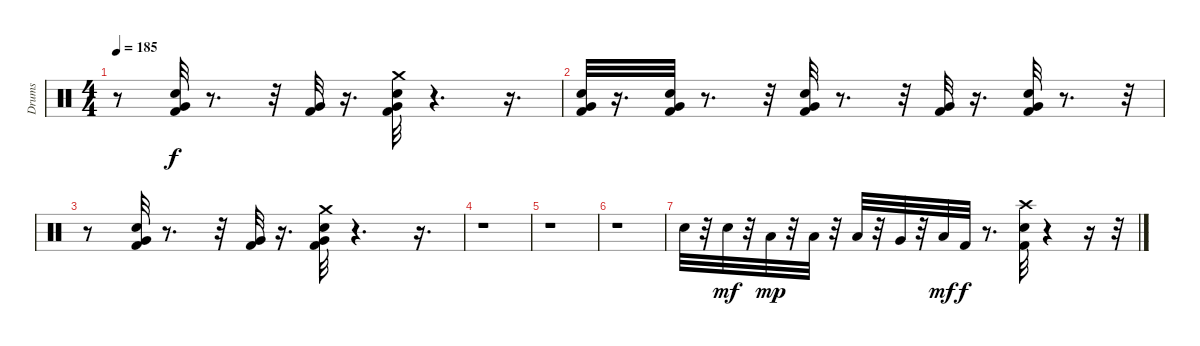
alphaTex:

\track ("Drums" "Drums") {instrument percussion}
\staff {score}
\articulation defaults
\ts (4 4)
\tempo 185
\clef neutral
\ks c
r.8{dy f} ("Kick (hit) 2" "Electric Snare (hit)" "Very Low Tom (hit)").32 r.8{d} r.32 ("Very Low Tom (hit)" "Kick (hit) 2").32 r.16{d} ("Crash medium (hit)" "Very Low Tom (hit)" "Electric Snare (hit)" "Kick (hit) 2").32 r.4{d} r.16{d} |
("Very Low Tom (hit)" "Kick (hit) 2" "Electric Snare (hit)").32 r.16{d} ("Very Low Tom (hit)" "Kick (hit) 2" "Electric Snare (hit)").32 r.8{d} r.32 ("Very Low Tom (hit)" "Kick (hit) 2" "Electric Snare (hit)").32 r.8{d} r.32 ("Very Low Tom (hit)" "Kick (hit) 2").32 r.16{d} ("Very Low Tom (hit)" "Kick (hit) 2" "Electric Snare (hit)").32 r.8{d} r.32 |
r.8 ("Very Low Tom (hit)" "Kick (hit) 2" "Electric Snare (hit)").32 r.8{d} r.32 ("Very Low Tom (hit)" "Kick (hit) 2").32 r.16{d} ("Very Low Tom (hit)" "Crash medium (hit)" "Kick (hit) 2" "Electric Snare (hit)").32 r.4{d} r.16{d} |
r.1 |
r.1 |
r.1 |
"Electric Snare (hit)".32 r.32 "Electric Snare (hit)".32{dy mf} r.32 "Low Tom (hit)".32{dy mp} r.32 "Low Tom (hit)".32 r.32 "Low Tom (hit)".32 r.32 "Very Low Tom (hit)".32 r.32 "Low Floor Tom (hit)".32{dy mf} "Kick (hit) 2".32{dy f} r.8{d} ("Kick (hit) 2" "Crash high (hit)" "Electric Snare (hit)").32 r.4 r.16 r.32
